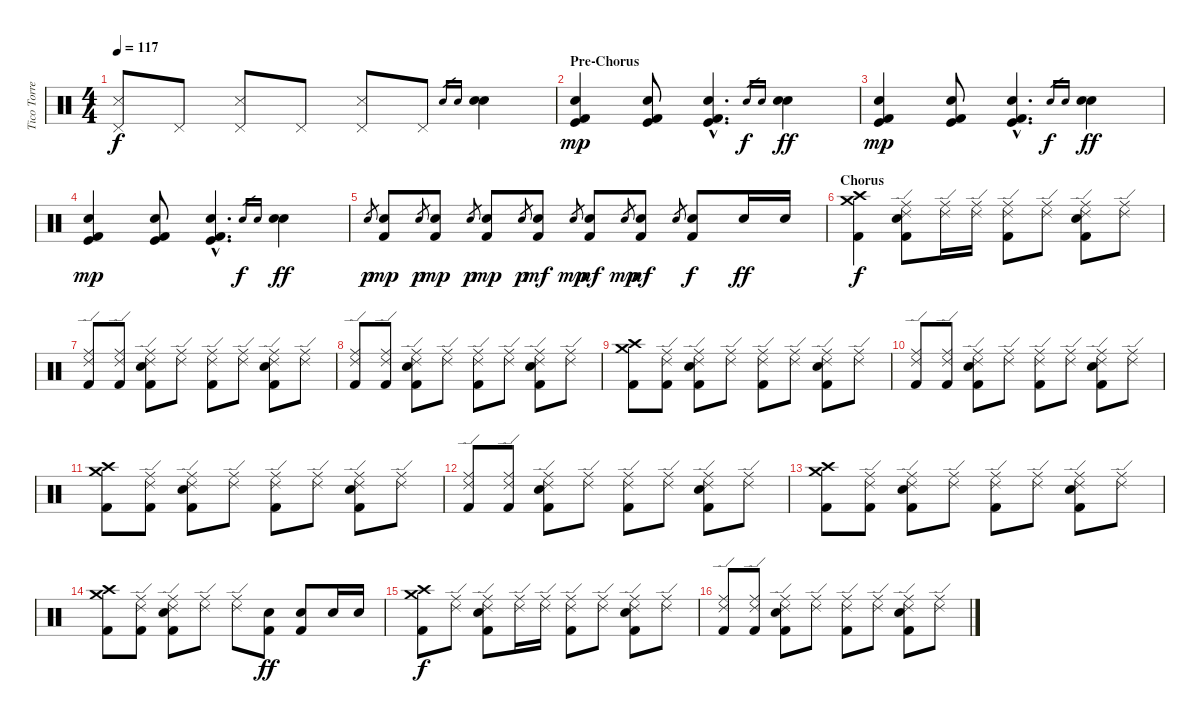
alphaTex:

\track ("Tico Torres" "Tico Torre") {instrument percussion}
\staff {score}
\articulation defaults
\ts (4 4)
\tempo 117
\clef neutral
\ks c
("Snare (side stick) 3" "Pedal Hi-Hat (hit)").8{dy f} "Pedal Hi-Hat (hit)".8 ("Snare (side stick) 3" "Pedal Hi-Hat (hit)").8 "Pedal Hi-Hat (hit)".8 ("Snare (side stick) 3" "Pedal Hi-Hat (hit)").8 "Pedal Hi-Hat (hit)".8 "Snare (hit) 2".16{gr} "Electric Snare (hit)".16{gr} ("Snare (hit) 2" "Electric Snare (hit)").4 |
\section ("" "Pre-Chorus")
("Kick (hit)" "Kick (hit) 2" "Snare (hit) 2").4{dy mp} ("Kick (hit)" "Kick (hit) 2" "Snare (hit) 2").8 ("Kick (hit)"{hac} "Kick (hit) 2"{hac} "Snare (hit) 2"{hac}).4{d} "Electric Snare (hit)".16{gr dy f} "Electric Snare (hit)".16{gr} ("Electric Snare (hit)" "Electric Snare (hit)").4{dy ff} |
("Kick (hit)" "Kick (hit) 2" "Snare (hit) 2").4{dy mp} ("Kick (hit)" "Kick (hit) 2" "Snare (hit) 2").8 ("Kick (hit)"{hac} "Kick (hit) 2"{hac} "Snare (hit) 2"{hac}).4{d} "Electric Snare (hit)".16{gr dy f} "Electric Snare (hit)".16{gr} ("Electric Snare (hit)" "Electric Snare (hit)").4{dy ff} |
("Kick (hit)" "Kick (hit) 2" "Snare (hit) 2").4{dy mp} ("Kick (hit)" "Kick (hit) 2" "Snare (hit) 2").8 ("Kick (hit)"{hac} "Kick (hit) 2"{hac} "Snare (hit) 2"{hac}).4{d} "Electric Snare (hit)".16{gr dy f} "Electric Snare (hit)".16{gr} ("Electric Snare (hit)" "Electric Snare (hit)").4{dy ff} |
"Electric Snare (hit)".8{gr dy p} ("Electric Snare (hit)" "Kick (hit) 2").8{dy mp} "Electric Snare (hit)".8{gr dy p} ("Electric Snare (hit)" "Kick (hit) 2").8{dy mp} "Electric Snare (hit)".8{gr dy p} ("Electric Snare (hit)" "Kick (hit) 2").8{dy mp} "Electric Snare (hit)".8{gr dy p} ("Electric Snare (hit)" "Kick (hit) 2").8{dy mf} "Electric Snare (hit)".8{gr dy mp} ("Electric Snare (hit)" "Kick (hit) 2").8{dy mf} "Electric Snare (hit)".8{gr dy mp} ("Electric Snare (hit)" "Kick (hit) 2").8{dy mf} "Electric Snare (hit)".8{gr} ("Electric Snare (hit)" "Kick (hit) 2").8{dy f} "Electric Snare (hit)".16{dy ff} "Electric Snare (hit)".16 |
\section ("" "Chorus")
("Crash high (hit)" "Crash medium (hit)" "Kick (hit) 2").4{dy f} ("Ride (middle)" "Ride (edge) 2" "Electric Snare (hit)" "Kick (hit) 2").8 ("Ride (middle)" "Ride (edge) 2").16 ("Ride (middle)" "Ride (edge) 2").16 ("Ride (middle)" "Ride (edge) 2" "Kick (hit) 2").8 ("Ride (middle)" "Ride (edge) 2").8 ("Ride (middle)" "Ride (edge) 2" "Electric Snare (hit)" "Kick (hit) 2").8 ("Ride (middle)" "Ride (edge) 2").8 |
("Ride (middle)" "Ride (edge) 2" "Kick (hit) 2").8 ("Ride (middle)" "Ride (edge) 2" "Kick (hit) 2").8 ("Ride (middle)" "Ride (edge) 2" "Electric Snare (hit)" "Kick (hit) 2").8 ("Ride (middle)" "Ride (edge) 2").8 ("Ride (middle)" "Ride (edge) 2" "Kick (hit) 2").8 ("Ride (middle)" "Ride (edge) 2").8 ("Ride (middle)" "Ride (edge) 2" "Electric Snare (hit)" "Kick (hit) 2").8 ("Ride (middle)" "Ride (edge) 2").8 |
("Ride (middle)" "Ride (edge) 2" "Kick (hit) 2").8 ("Ride (middle)" "Ride (edge) 2" "Kick (hit) 2").8 ("Ride (middle)" "Ride (edge) 2" "Electric Snare (hit)" "Kick (hit) 2").8 ("Ride (middle)" "Ride (edge) 2").8 ("Ride (middle)" "Ride (edge) 2" "Kick (hit) 2").8 ("Ride (middle)" "Ride (edge) 2").8 ("Ride (middle)" "Ride (edge) 2" "Electric Snare (hit)" "Kick (hit) 2").8 ("Ride (middle)" "Ride (edge) 2").8 |
("Crash high (hit)" "Crash medium (hit)" "Kick (hit) 2").8 ("Ride (middle)" "Ride (edge) 2" "Kick (hit) 2").8 ("Ride (middle)" "Ride (edge) 2" "Electric Snare (hit)" "Kick (hit) 2").8 ("Ride (middle)" "Ride (edge) 2").8 ("Ride (middle)" "Ride (edge) 2" "Kick (hit) 2").8 ("Ride (middle)" "Ride (edge) 2").8 ("Ride (middle)" "Ride (edge) 2" "Electric Snare (hit)" "Kick (hit) 2").8 ("Ride (middle)" "Ride (edge) 2").8 |
("Ride (middle)" "Ride (edge) 2" "Kick (hit) 2").8 ("Ride (middle)" "Ride (edge) 2" "Kick (hit) 2").8 ("Ride (middle)" "Ride (edge) 2" "Electric Snare (hit)" "Kick (hit) 2").8 ("Ride (middle)" "Ride (edge) 2").8 ("Ride (middle)" "Ride (edge) 2" "Kick (hit) 2").8 ("Ride (middle)" "Ride (edge) 2").8 ("Ride (middle)" "Ride (edge) 2" "Electric Snare (hit)" "Kick (hit) 2").8 ("Ride (middle)" "Ride (edge) 2").8 |
("Crash high (hit)" "Crash medium (hit)" "Kick (hit) 2").8 ("Ride (middle)" "Ride (edge) 2" "Kick (hit) 2").8 ("Ride (middle)" "Ride (edge) 2" "Electric Snare (hit)" "Kick (hit) 2").8 ("Ride (middle)" "Ride (edge) 2").8 ("Ride (middle)" "Ride (edge) 2" "Kick (hit) 2").8 ("Ride (middle)" "Ride (edge) 2").8 ("Ride (middle)" "Ride (edge) 2" "Electric Snare (hit)" "Kick (hit) 2").8 ("Ride (middle)" "Ride (edge) 2").8 |
("Ride (middle)" "Ride (edge) 2" "Kick (hit) 2").8 ("Ride (middle)" "Ride (edge) 2" "Kick (hit) 2").8 ("Ride (middle)" "Ride (edge) 2" "Electric Snare (hit)" "Kick (hit) 2").8 ("Ride (middle)" "Ride (edge) 2").8 ("Ride (middle)" "Ride (edge) 2" "Kick (hit) 2").8 ("Ride (middle)" "Ride (edge) 2").8 ("Ride (middle)" "Ride (edge) 2" "Electric Snare (hit)" "Kick (hit) 2").8 ("Ride (middle)" "Ride (edge) 2").8 |
("Crash high (hit)" "Crash medium (hit)" "Kick (hit) 2").8 ("Ride (middle)" "Ride (edge) 2" "Kick (hit) 2").8 ("Ride (middle)" "Ride (edge) 2" "Electric Snare (hit)" "Kick (hit) 2").8 ("Ride (middle)" "Ride (edge) 2").8 ("Ride (middle)" "Ride (edge) 2" "Kick (hit) 2").8 ("Ride (middle)" "Ride (edge) 2").8 ("Ride (middle)" "Ride (edge) 2" "Electric Snare (hit)" "Kick (hit) 2").8 ("Ride (middle)" "Ride (edge) 2").8 |
("Crash high (hit)" "Crash medium (hit)" "Kick (hit) 2").8 ("Ride (middle)" "Ride (edge) 2" "Kick (hit) 2").8 ("Ride (middle)" "Ride (edge) 2" "Electric Snare (hit)" "Kick (hit) 2").8 ("Ride (middle)" "Ride (edge) 2").8 ("Ride (middle)" "Ride (edge) 2").8 ("Electric Snare (hit)" "Kick (hit) 2").8{dy ff} ("Electric Snare (hit)" "Kick (hit) 2").8 "Electric Snare (hit)".16 "Electric Snare (hit)".16 |
("Crash high (hit)" "Crash medium (hit)" "Kick (hit) 2").8{dy f} ("Ride (middle)" "Ride (edge) 2").8 ("Ride (middle)" "Ride (edge) 2" "Electric Snare (hit)" "Kick (hit) 2").8 ("Ride (middle)" "Ride (edge) 2").16 ("Ride (middle)" "Ride (edge) 2").16 ("Ride (middle)" "Ride (edge) 2" "Kick (hit) 2").8 ("Ride (middle)" "Ride (edge) 2").8 ("Ride (middle)" "Ride (edge) 2" "Electric Snare (hit)" "Kick (hit) 2").8 ("Ride (middle)" "Ride (edge) 2").8 |
("Ride (middle)" "Ride (edge) 2" "Kick (hit) 2").8 ("Ride (middle)" "Ride (edge) 2" "Kick (hit) 2").8 ("Ride (middle)" "Ride (edge) 2" "Electric Snare (hit)" "Kick (hit) 2").8 ("Ride (middle)" "Ride (edge) 2").8 ("Ride (middle)" "Ride (edge) 2" "Kick (hit) 2").8 ("Ride (middle)" "Ride (edge) 2").8 ("Ride (middle)" "Ride (edge) 2" "Electric Snare (hit)" "Kick (hit) 2").8 ("Ride (middle)" "Ride (edge) 2").8
